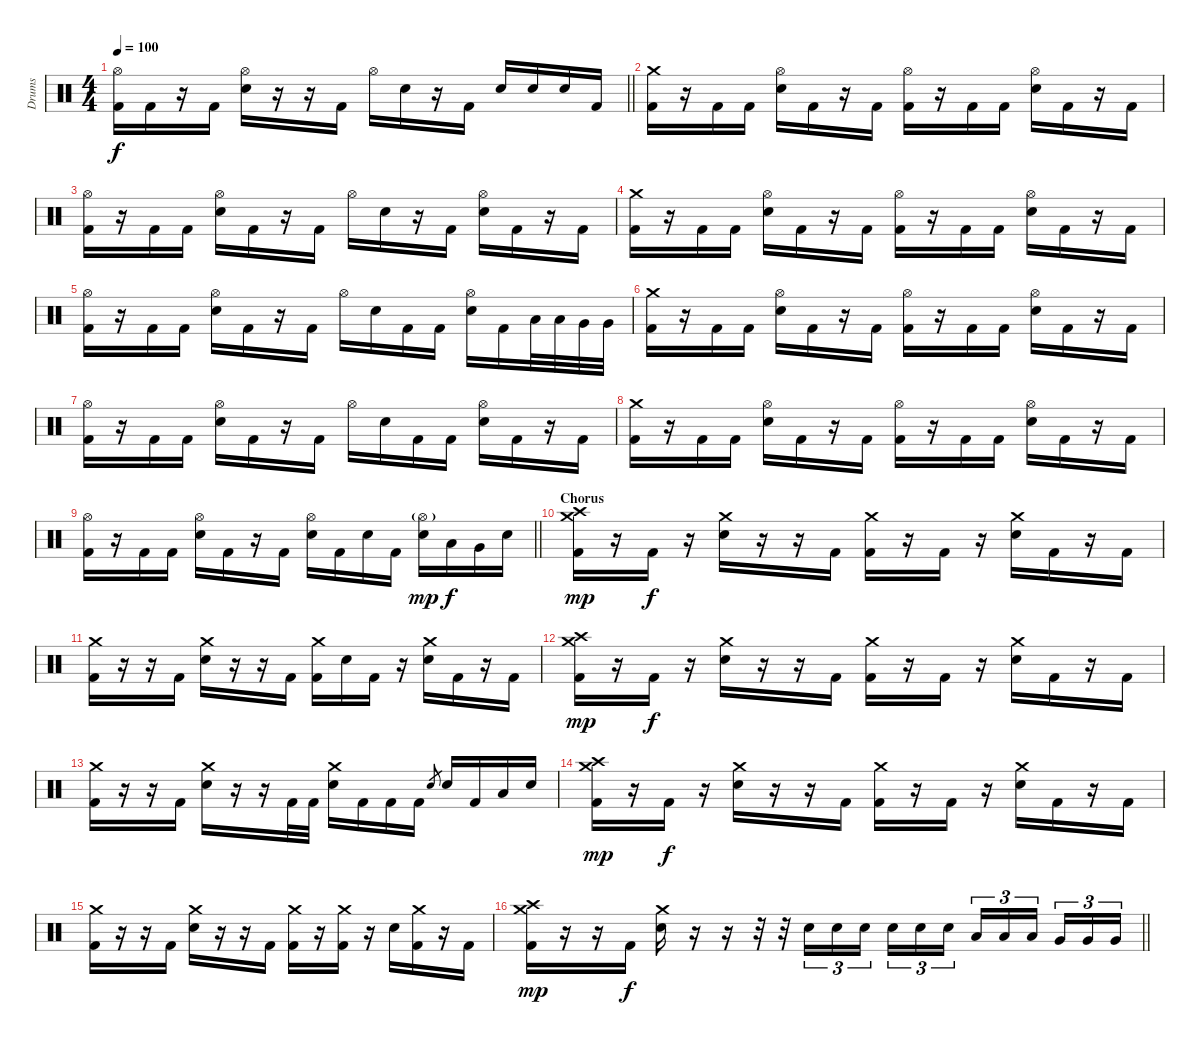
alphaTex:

\track ("Drums" "Drums") {instrument percussion}
\staff {score}
\articulation defaults
\ts (4 4)
\tempo 100
\clef neutral
\barLineRight lightlight
\ks c
("Hi-Hat (open)" "Kick (hit) 2").16{dy f} "Kick (hit) 2".16 r.16 "Kick (hit) 2".16 ("Hi-Hat (open)" "Electric Snare (hit)").16 r.16 r.16 "Kick (hit) 2".16 "Hi-Hat (open)".16 "Electric Snare (hit)".16 r.16 "Kick (hit) 2".16 "Electric Snare (hit)".16 "Electric Snare (hit)".16 "Electric Snare (hit)".16 "Kick (hit) 2".16 |
\section ("" "")
("Crash medium (hit)" "Kick (hit) 2").16 r.16 "Kick (hit) 2".16 "Kick (hit) 2".16 ("Hi-Hat (open)" "Electric Snare (hit)").16 "Kick (hit) 2".16 r.16 "Kick (hit) 2".16 ("Hi-Hat (open)" "Kick (hit) 2").16 r.16 "Kick (hit) 2".16 "Kick (hit) 2".16 ("Hi-Hat (open)" "Electric Snare (hit)").16 "Kick (hit) 2".16 r.16 "Kick (hit) 2".16 |
("Hi-Hat (open)" "Kick (hit) 2").16 r.16 "Kick (hit) 2".16 "Kick (hit) 2".16 ("Hi-Hat (open)" "Electric Snare (hit)").16 "Kick (hit) 2".16 r.16 "Kick (hit) 2".16 "Hi-Hat (open)".16 "Electric Snare (hit)".16 r.16 "Kick (hit) 2".16 ("Hi-Hat (open)" "Electric Snare (hit)").16 "Kick (hit) 2".16 r.16 "Kick (hit) 2".16 |
("Crash medium (hit)" "Kick (hit) 2").16 r.16 "Kick (hit) 2".16 "Kick (hit) 2".16 ("Hi-Hat (open)" "Electric Snare (hit)").16 "Kick (hit) 2".16 r.16 "Kick (hit) 2".16 ("Hi-Hat (open)" "Kick (hit) 2").16 r.16 "Kick (hit) 2".16 "Kick (hit) 2".16 ("Hi-Hat (open)" "Electric Snare (hit)").16 "Kick (hit) 2".16 r.16 "Kick (hit) 2".16 |
("Hi-Hat (open)" "Kick (hit) 2").16 r.16 "Kick (hit) 2".16 "Kick (hit) 2".16 ("Hi-Hat (open)" "Electric Snare (hit)").16 "Kick (hit) 2".16 r.16 "Kick (hit) 2".16 "Hi-Hat (open)".16 "Electric Snare (hit)".16 "Kick (hit) 2".16 "Kick (hit) 2".16 ("Hi-Hat (open)" "Electric Snare (hit)").16 "Kick (hit) 2".16 "Low Tom (hit)".32 "Low Tom (hit)".32 "Very Low Tom (hit)".32 "Very Low Tom (hit)".32 |
("Crash medium (hit)" "Kick (hit) 2").16 r.16 "Kick (hit) 2".16 "Kick (hit) 2".16 ("Hi-Hat (open)" "Electric Snare (hit)").16 "Kick (hit) 2".16 r.16 "Kick (hit) 2".16 ("Hi-Hat (open)" "Kick (hit) 2").16 r.16 "Kick (hit) 2".16 "Kick (hit) 2".16 ("Hi-Hat (open)" "Electric Snare (hit)").16 "Kick (hit) 2".16 r.16 "Kick (hit) 2".16 |
("Hi-Hat (open)" "Kick (hit) 2").16 r.16 "Kick (hit) 2".16 "Kick (hit) 2".16 ("Hi-Hat (open)" "Electric Snare (hit)").16 "Kick (hit) 2".16 r.16 "Kick (hit) 2".16 "Hi-Hat (open)".16 "Electric Snare (hit)".16 "Kick (hit) 2".16 "Kick (hit) 2".16 ("Hi-Hat (open)" "Electric Snare (hit)").16 "Kick (hit) 2".16 r.16 "Kick (hit) 2".16 |
("Crash medium (hit)" "Kick (hit) 2").16 r.16 "Kick (hit) 2".16 "Kick (hit) 2".16 ("Hi-Hat (open)" "Electric Snare (hit)").16 "Kick (hit) 2".16 r.16 "Kick (hit) 2".16 ("Hi-Hat (open)" "Kick (hit) 2").16 r.16 "Kick (hit) 2".16 "Kick (hit) 2".16 ("Hi-Hat (open)" "Electric Snare (hit)").16 "Kick (hit) 2".16 r.16 "Kick (hit) 2".16 |
\barLineRight lightlight
("Hi-Hat (open)" "Kick (hit) 2").16 r.16 "Kick (hit) 2".16 "Kick (hit) 2".16 ("Hi-Hat (open)" "Electric Snare (hit)").16 "Kick (hit) 2".16 r.16 "Kick (hit) 2".16 ("Hi-Hat (open)" "Electric Snare (hit)").16 "Kick (hit) 2".16 "Electric Snare (hit)".16 "Kick (hit) 2".16 ("Hi-Hat (open)"{g} "Electric Snare (hit)").16{dy mp} "Low Tom (hit)".16{dy f} "Very Low Tom (hit)".16 "Electric Snare (hit)".16 |
\section ("" "Chorus")
("Crash high (hit)" "Crash medium (hit)" "Kick (hit) 2").16{dy mp} r.16 "Kick (hit) 2".16{dy f} r.16 ("Crash medium (hit)" "Electric Snare (hit)").16 r.16 r.16 "Kick (hit) 2".16 ("Crash medium (hit)" "Kick (hit) 2").16 r.16 "Kick (hit) 2".16 r.16 ("Crash medium (hit)" "Electric Snare (hit)").16 "Kick (hit) 2".16 r.16 "Kick (hit) 2".16 |
("Crash medium (hit)" "Kick (hit) 2").16 r.16 r.16 "Kick (hit) 2".16 ("Crash medium (hit)" "Electric Snare (hit)").16 r.16 r.16 "Kick (hit) 2".16 ("Crash medium (hit)" "Kick (hit) 2").16 "Electric Snare (hit)".16 "Kick (hit) 2".16 r.16 ("Crash medium (hit)" "Electric Snare (hit)").16 "Kick (hit) 2".16 r.16 "Kick (hit) 2".16 |
("Crash high (hit)" "Crash medium (hit)" "Kick (hit) 2").16{dy mp} r.16 "Kick (hit) 2".16{dy f} r.16 ("Crash medium (hit)" "Electric Snare (hit)").16 r.16 r.16 "Kick (hit) 2".16 ("Crash medium (hit)" "Kick (hit) 2").16 r.16 "Kick (hit) 2".16 r.16 ("Crash medium (hit)" "Electric Snare (hit)").16 "Kick (hit) 2".16 r.16 "Kick (hit) 2".16 |
("Crash medium (hit)" "Kick (hit) 2").16 r.16 r.16 "Kick (hit) 2".16 ("Crash medium (hit)" "Electric Snare (hit)").16 r.16 r.16 "Kick (hit) 2".32 "Kick (hit) 2".32 ("Crash medium (hit)" "Electric Snare (hit)").16 "Kick (hit) 2".16 "Kick (hit) 2".16 "Kick (hit) 2".16 "Electric Snare (hit)".8{gr} "Electric Snare (hit)".16 "Kick (hit) 2".16 "Low Tom (hit)".16 "Electric Snare (hit)".16 |
("Crash high (hit)" "Crash medium (hit)" "Kick (hit) 2").16{dy mp} r.16 "Kick (hit) 2".16{dy f} r.16 ("Crash medium (hit)" "Electric Snare (hit)").16 r.16 r.16 "Kick (hit) 2".16 ("Crash medium (hit)" "Kick (hit) 2").16 r.16 "Kick (hit) 2".16 r.16 ("Crash medium (hit)" "Electric Snare (hit)").16 "Kick (hit) 2".16 r.16 "Kick (hit) 2".16 |
("Crash medium (hit)" "Kick (hit) 2").16 r.16 r.16 "Kick (hit) 2".16 ("Crash medium (hit)" "Electric Snare (hit)").16 r.16 r.16 "Kick (hit) 2".16 ("Crash medium (hit)" "Kick (hit) 2").16 r.16 ("Crash medium (hit)" "Kick (hit) 2").16 r.16 "Electric Snare (hit)".16 ("Crash medium (hit)" "Kick (hit) 2").16 r.16 "Kick (hit) 2".16 |
\barLineRight lightlight
("Crash medium (hit)" "Crash high (hit)" "Kick (hit) 2").16{dy mp} r.16 r.16 "Kick (hit) 2".16{dy f} ("Crash medium (hit)" "Electric Snare (hit)").16 r.16 r.16 r.32 r.32 "Electric Snare (hit)".16{tu (3 2)} "Electric Snare (hit)".16{tu (3 2)} "Electric Snare (hit)".16{tu (3 2) beam splitsecondary} "Electric Snare (hit)".16{tu (3 2)} "Electric Snare (hit)".16{tu (3 2)} "Electric Snare (hit)".16{tu (3 2)} "Low Tom (hit)".16{tu (3 2)} "Low Tom (hit)".16{tu (3 2)} "Low Tom (hit)".16{tu (3 2) beam splitsecondary} "Very Low Tom (hit)".16{tu (3 2)} "Very Low Tom (hit)".16{tu (3 2)} "Very Low Tom (hit)".16{tu (3 2)}
